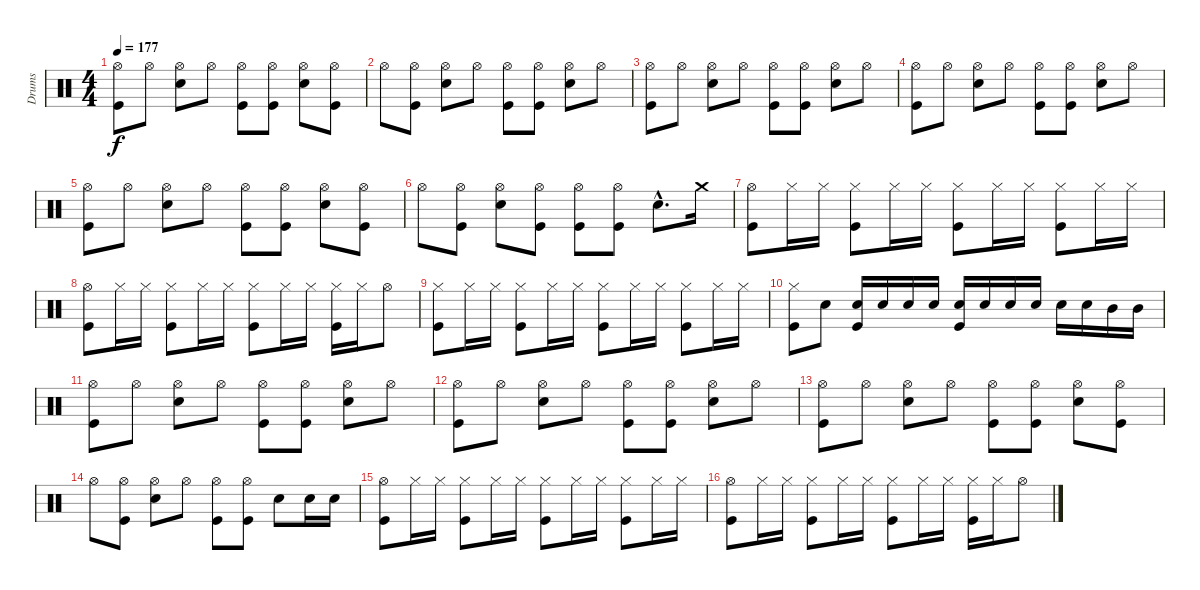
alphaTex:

\track ("Drums" "Drums") {instrument percussion}
\staff {score}
\articulation defaults
\ts (4 4)
\tempo 177
\clef neutral
\ks c
("Hi-Hat (open)" "Kick (hit)").8{dy f} "Hi-Hat (open)".8 ("Hi-Hat (open)" "Snare (hit) 2").8 "Hi-Hat (open)".8 ("Hi-Hat (open)" "Kick (hit)").8 ("Hi-Hat (open)" "Kick (hit)").8 ("Hi-Hat (open)" "Snare (hit) 2").8 ("Hi-Hat (open)" "Kick (hit)").8 |
"Hi-Hat (open)".8 ("Hi-Hat (open)" "Kick (hit)").8 ("Hi-Hat (open)" "Snare (hit) 2").8 "Hi-Hat (open)".8 ("Hi-Hat (open)" "Kick (hit)").8 ("Hi-Hat (open)" "Kick (hit)").8 ("Hi-Hat (open)" "Snare (hit) 2").8 "Hi-Hat (open)".8 |
("Hi-Hat (open)" "Kick (hit)").8 "Hi-Hat (open)".8 ("Hi-Hat (open)" "Snare (hit) 2").8 "Hi-Hat (open)".8 ("Hi-Hat (open)" "Kick (hit)").8 ("Hi-Hat (open)" "Kick (hit)").8 ("Hi-Hat (open)" "Snare (hit) 2").8 "Hi-Hat (open)".8 |
("Hi-Hat (open)" "Kick (hit)").8 "Hi-Hat (open)".8 ("Hi-Hat (open)" "Snare (hit) 2").8 "Hi-Hat (open)".8 ("Hi-Hat (open)" "Kick (hit)").8 ("Hi-Hat (open)" "Kick (hit)").8 ("Hi-Hat (open)" "Snare (hit) 2").8 "Hi-Hat (open)".8 |
("Hi-Hat (open)" "Kick (hit)").8 "Hi-Hat (open)".8 ("Hi-Hat (open)" "Snare (hit) 2").8 "Hi-Hat (open)".8 ("Hi-Hat (open)" "Kick (hit)").8 ("Hi-Hat (open)" "Kick (hit)").8 ("Hi-Hat (open)" "Snare (hit) 2").8 ("Hi-Hat (open)" "Kick (hit)").8 |
"Hi-Hat (open)".8 ("Hi-Hat (open)" "Kick (hit)").8 ("Hi-Hat (open)" "Snare (hit) 2").8 ("Hi-Hat (open)" "Kick (hit)").8 ("Hi-Hat (open)" "Kick (hit)").8 ("Hi-Hat (open)" "Kick (hit)").8 "Snare (hit) 2"{hac}.8{d} "Crash medium (hit)".16 |
("Hi-Hat (open)" "Kick (hit)").8 "Hi-Hat (closed)".16 "Hi-Hat (closed)".16 ("Hi-Hat (closed)" "Kick (hit)").8 "Hi-Hat (closed)".16 "Hi-Hat (closed)".16 ("Hi-Hat (closed)" "Kick (hit)").8 "Hi-Hat (closed)".16 "Hi-Hat (closed)".16 ("Hi-Hat (closed)" "Kick (hit)").8 "Hi-Hat (closed)".16 "Hi-Hat (closed)".16 |
("Hi-Hat (open)" "Kick (hit)").8 "Hi-Hat (closed)".16 "Hi-Hat (closed)".16 ("Hi-Hat (closed)" "Kick (hit)").8 "Hi-Hat (closed)".16 "Hi-Hat (closed)".16 ("Hi-Hat (closed)" "Kick (hit)").8 "Hi-Hat (closed)".16 "Hi-Hat (closed)".16 ("Hi-Hat (closed)" "Kick (hit)").16 "Hi-Hat (closed)".16 "Hi-Hat (open)".8 |
("Hi-Hat (closed)" "Kick (hit)").8 "Hi-Hat (closed)".16 "Hi-Hat (closed)".16 ("Hi-Hat (closed)" "Kick (hit)").8 "Hi-Hat (closed)".16 "Hi-Hat (closed)".16 ("Hi-Hat (closed)" "Kick (hit)").8 "Hi-Hat (closed)".16 "Hi-Hat (closed)".16 ("Hi-Hat (closed)" "Kick (hit)").8 "Hi-Hat (closed)".16 "Hi-Hat (closed)".16 |
("Hi-Hat (closed)" "Kick (hit)").8 "Snare (hit) 2".8 ("Snare (hit) 2" "Kick (hit)").16 "Snare (hit) 2".16 "Snare (hit) 2".16 "Snare (hit) 2".16 ("Snare (hit) 2" "Kick (hit)").16 "Snare (hit) 2".16 "Snare (hit) 2".16 "Snare (hit) 2".16 "Snare (hit) 2".16 "Snare (hit) 2".16 "Mid Tom (hit)".16 "Mid Tom (hit)".16 |
("Hi-Hat (open)" "Kick (hit)").8 "Hi-Hat (open)".8 ("Hi-Hat (open)" "Snare (hit) 2").8 "Hi-Hat (open)".8 ("Hi-Hat (open)" "Kick (hit)").8 ("Hi-Hat (open)" "Kick (hit)").8 ("Hi-Hat (open)" "Snare (hit) 2").8 "Hi-Hat (open)".8 |
("Hi-Hat (open)" "Kick (hit)").8 "Hi-Hat (open)".8 ("Hi-Hat (open)" "Snare (hit) 2").8 "Hi-Hat (open)".8 ("Hi-Hat (open)" "Kick (hit)").8 ("Hi-Hat (open)" "Kick (hit)").8 ("Hi-Hat (open)" "Snare (hit) 2").8 "Hi-Hat (open)".8 |
("Hi-Hat (open)" "Kick (hit)").8 "Hi-Hat (open)".8 ("Hi-Hat (open)" "Snare (hit) 2").8 "Hi-Hat (open)".8 ("Hi-Hat (open)" "Kick (hit)").8 ("Hi-Hat (open)" "Kick (hit)").8 ("Hi-Hat (open)" "Snare (hit) 2").8 ("Hi-Hat (open)" "Kick (hit)").8 |
"Hi-Hat (open)".8 ("Hi-Hat (open)" "Kick (hit)").8 ("Hi-Hat (open)" "Snare (hit) 2").8 "Hi-Hat (open)".8 ("Hi-Hat (open)" "Kick (hit)").8 ("Hi-Hat (open)" "Kick (hit)").8 "Snare (hit) 2".8 "Snare (hit) 2".16 "Snare (hit) 2".16 |
("Hi-Hat (open)" "Kick (hit)").8 "Hi-Hat (closed)".16 "Hi-Hat (closed)".16 ("Hi-Hat (closed)" "Kick (hit)").8 "Hi-Hat (closed)".16 "Hi-Hat (closed)".16 ("Hi-Hat (closed)" "Kick (hit)").8 "Hi-Hat (closed)".16 "Hi-Hat (closed)".16 ("Hi-Hat (closed)" "Kick (hit)").8 "Hi-Hat (closed)".16 "Hi-Hat (closed)".16 |
("Hi-Hat (open)" "Kick (hit)").8 "Hi-Hat (closed)".16 "Hi-Hat (closed)".16 ("Hi-Hat (closed)" "Kick (hit)").8 "Hi-Hat (closed)".16 "Hi-Hat (closed)".16 ("Hi-Hat (closed)" "Kick (hit)").8 "Hi-Hat (closed)".16 "Hi-Hat (closed)".16 ("Hi-Hat (closed)" "Kick (hit)").16 "Hi-Hat (closed)".16 "Hi-Hat (open)".8
